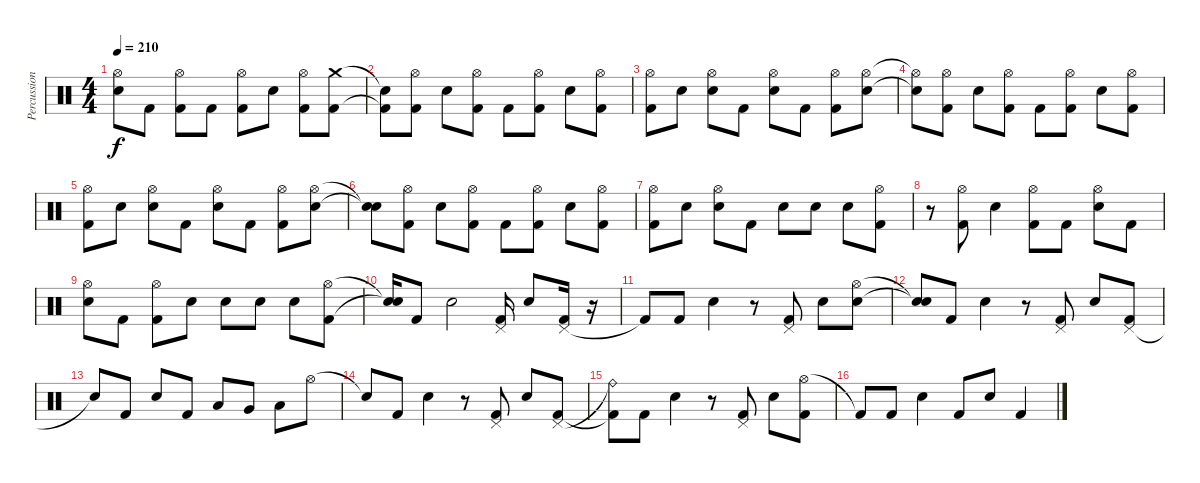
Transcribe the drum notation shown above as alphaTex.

\track ("Percussion" "Percussion") {instrument percussion}
\staff {score}
\articulation defaults
\ts (4 4)
\tempo 210
\clef neutral
\ks c
("Hi-Hat (open)" "Electric Snare (hit)").8{dy f} "Kick (hit) 2".8 ("Hi-Hat (open)" "Kick (hit) 2").8 "Kick (hit) 2".8 ("Hi-Hat (open)" "Kick (hit) 2").8 "Electric Snare (hit)".8 ("Hi-Hat (open)" "Kick (hit) 2").8 ("Crash medium (hit)" "Kick (hit) 2").8 |
("Snare (hit)"{t} "Kick (hit) 2"{t}).8 ("Hi-Hat (open)" "Kick (hit) 2").8 "Electric Snare (hit)".8 ("Hi-Hat (open)" "Kick (hit) 2").8 "Kick (hit) 2".8 ("Hi-Hat (open)" "Kick (hit) 2").8 "Electric Snare (hit)".8 ("Hi-Hat (open)" "Kick (hit) 2").8 |
("Hi-Hat (open)" "Kick (hit) 2").8 "Electric Snare (hit)".8 ("Hi-Hat (open)" "Electric Snare (hit)").8 "Kick (hit) 2".8 ("Hi-Hat (open)" "Electric Snare (hit)").8 "Kick (hit) 2".8 ("Hi-Hat (open)" "Kick (hit) 2").8 ("Hi-Hat (open)" "Electric Snare (hit)").8 |
("Hi-Hat (open)"{t} "Electric Snare (hit)"{t}).8 ("Hi-Hat (open)" "Kick (hit) 2").8 "Electric Snare (hit)".8 ("Hi-Hat (open)" "Kick (hit) 2").8 "Kick (hit) 2".8 ("Hi-Hat (open)" "Kick (hit) 2").8 "Electric Snare (hit)".8 ("Hi-Hat (open)" "Kick (hit) 2").8 |
("Hi-Hat (open)" "Kick (hit) 2").8 "Electric Snare (hit)".8 ("Hi-Hat (open)" "Electric Snare (hit)").8 "Kick (hit) 2".8 ("Hi-Hat (open)" "Electric Snare (hit)").8 "Kick (hit) 2".8 ("Hi-Hat (open)" "Kick (hit) 2").8 ("Hi-Hat (open)" "Electric Snare (hit)").8 |
("Snare (hit)"{t} "Snare (hit)"{t}).8 ("Hi-Hat (open)" "Kick (hit) 2").8 "Electric Snare (hit)".8 ("Hi-Hat (open)" "Kick (hit) 2").8 "Kick (hit) 2".8 ("Hi-Hat (open)" "Kick (hit) 2").8 "Electric Snare (hit)".8 ("Hi-Hat (open)" "Kick (hit) 2").8 |
("Hi-Hat (open)" "Kick (hit) 2").8 "Electric Snare (hit)".8 ("Hi-Hat (open)" "Electric Snare (hit)").8 "Kick (hit) 2".8 "Electric Snare (hit)".8 "Electric Snare (hit)".8 "Electric Snare (hit)".8 ("Hi-Hat (open)" "Kick (hit) 2").8 |
r.8 ("Hi-Hat (open)" "Kick (hit) 2").8 "Electric Snare (hit)".4 ("Hi-Hat (open)" "Kick (hit) 2").8 "Kick (hit) 2".8 ("Hi-Hat (open)" "Electric Snare (hit)").8 "Kick (hit) 2".8 |
("Hi-Hat (open)" "Electric Snare (hit)").8 "Kick (hit) 2".8 ("Hi-Hat (open)" "Kick (hit) 2").8 "Electric Snare (hit)".8 "Electric Snare (hit)".8 "Electric Snare (hit)".8 "Electric Snare (hit)".8 ("Hi-Hat (open)" "Kick (hit) 2").8 |
("Snare (hit)"{t} "Snare (hit)"{t}).16 "Kick (hit) 2".8 "Electric Snare (hit)".2 ("Pedal Hi-Hat (hit)" "Kick (hit) 2").16 "Electric Snare (hit)".8 ("Pedal Hi-Hat (hit)" "Kick (hit) 2").16 r.16 |
"Kick (hit) 2"{t}.8 "Kick (hit) 2".8 "Electric Snare (hit)".4 r.8 ("Pedal Hi-Hat (hit)" "Kick (hit) 2").8 "Electric Snare (hit)".8 ("Hi-Hat (open)" "Electric Snare (hit)").8 |
("Snare (hit)"{t} "Electric Snare (hit)"{t}).8 "Kick (hit) 2".8 "Electric Snare (hit)".4 r.8 ("Pedal Hi-Hat (hit)" "Kick (hit) 2").8 "Electric Snare (hit)".8 ("Pedal Hi-Hat (hit)" "Kick (hit) 2").8 |
"Snare (hit)"{t}.8 "Kick (hit) 2".8 "Electric Snare (hit)".8 "Kick (hit) 2".8 "Low Tom (hit)".8 "Very Low Tom (hit)".8 "Low Floor Tom (hit)".8 "Hi-Hat (open)".8 |
"Snare (hit)"{t}.8 "Kick (hit) 2".8 "Electric Snare (hit)".4 r.8 ("Pedal Hi-Hat (hit)" "Kick (hit) 2").8 "Electric Snare (hit)".8 ("Pedal Hi-Hat (hit)" "Kick (hit) 2").8 |
("Ride (bell)"{t} "Kick (hit) 2"{t}).8 "Kick (hit) 2".8 "Electric Snare (hit)".4 r.8 ("Pedal Hi-Hat (hit)" "Kick (hit) 2").8 "Electric Snare (hit)".8 ("Hi-Hat (open)" "Kick (hit) 2").8 |
"Kick (hit) 2"{t}.8 "Kick (hit) 2".8 "Electric Snare (hit)".4 "Kick (hit) 2".8 "Electric Snare (hit)".8 "Kick (hit) 2".4
